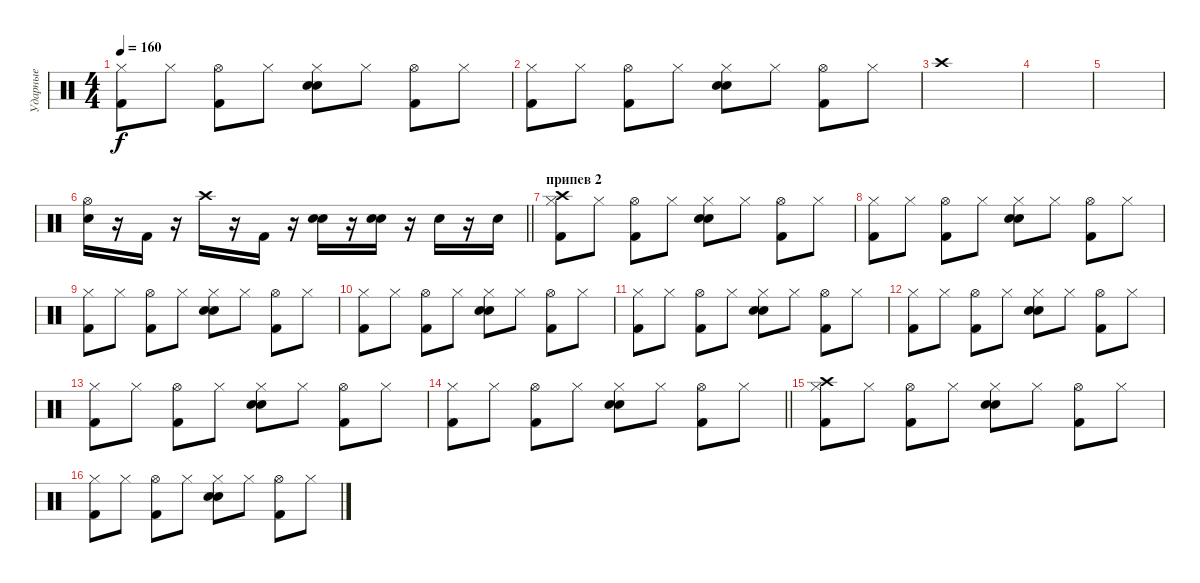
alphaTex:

\track ("Ударные" "Ударные") {instrument percussion}
\staff {score}
\articulation defaults
\ts (4 4)
\tempo 160
\clef neutral
\ks c
("Hi-Hat (closed)" "Kick (hit) 2").8{dy f} "Hi-Hat (closed)".8 ("Hi-Hat (open)" "Kick (hit) 2").8 "Hi-Hat (closed)".8 ("Hi-Hat (closed)" "Snare (hit) 2" "Electric Snare (hit)").8 "Hi-Hat (closed)".8 ("Hi-Hat (open)" "Kick (hit) 2").8 "Hi-Hat (closed)".8 |
("Hi-Hat (closed)" "Kick (hit) 2").8 "Hi-Hat (closed)".8 ("Hi-Hat (open)" "Kick (hit) 2").8 "Hi-Hat (closed)".8 ("Hi-Hat (closed)" "Snare (hit) 2" "Electric Snare (hit)").8 "Hi-Hat (closed)".8 ("Hi-Hat (open)" "Kick (hit) 2").8 "Hi-Hat (closed)".8 |
"Crash high (hit)".1 |
|
|
\barLineRight lightlight
("Snare (hit) 2" "Hi-Hat (open)").16 r.16 "Kick (hit) 2".16 r.16 "Crash high (hit)".16 r.16 "Kick (hit) 2".16 r.16 ("Snare (hit) 2" "Electric Snare (hit)").16 r.16 ("Snare (hit) 2" "Electric Snare (hit)").16 r.16 "Electric Snare (hit)".16 r.16 "Electric Snare (hit)".16 |
\section ("" "припев 2")
("Hi-Hat (closed)" "Crash high (hit)" "Kick (hit) 2").8 "Hi-Hat (closed)".8 ("Hi-Hat (open)" "Kick (hit) 2").8 "Hi-Hat (closed)".8 ("Hi-Hat (closed)" "Electric Snare (hit)" "Snare (hit) 2").8 "Hi-Hat (closed)".8 ("Hi-Hat (open)" "Kick (hit) 2").8 "Hi-Hat (closed)".8 |
("Hi-Hat (closed)" "Kick (hit) 2").8 "Hi-Hat (closed)".8 ("Hi-Hat (open)" "Kick (hit) 2").8 "Hi-Hat (closed)".8 ("Hi-Hat (closed)" "Snare (hit) 2" "Electric Snare (hit)").8 "Hi-Hat (closed)".8 ("Hi-Hat (open)" "Kick (hit) 2").8 "Hi-Hat (closed)".8 |
("Hi-Hat (closed)" "Kick (hit) 2").8 "Hi-Hat (closed)".8 ("Hi-Hat (open)" "Kick (hit) 2").8 "Hi-Hat (closed)".8 ("Hi-Hat (closed)" "Electric Snare (hit)" "Snare (hit) 2").8 "Hi-Hat (closed)".8 ("Hi-Hat (open)" "Kick (hit) 2").8 "Hi-Hat (closed)".8 |
("Hi-Hat (closed)" "Kick (hit) 2").8 "Hi-Hat (closed)".8 ("Hi-Hat (open)" "Kick (hit) 2").8 "Hi-Hat (closed)".8 ("Hi-Hat (closed)" "Electric Snare (hit)" "Snare (hit) 2").8 "Hi-Hat (closed)".8 ("Hi-Hat (open)" "Kick (hit) 2").8 "Hi-Hat (closed)".8 |
("Hi-Hat (closed)" "Kick (hit) 2").8 "Hi-Hat (closed)".8 ("Hi-Hat (open)" "Kick (hit) 2").8 "Hi-Hat (closed)".8 ("Hi-Hat (closed)" "Snare (hit) 2" "Electric Snare (hit)").8 "Hi-Hat (closed)".8 ("Hi-Hat (open)" "Kick (hit) 2").8 "Hi-Hat (closed)".8 |
("Hi-Hat (closed)" "Kick (hit) 2").8 "Hi-Hat (closed)".8 ("Hi-Hat (open)" "Kick (hit) 2").8 "Hi-Hat (closed)".8 ("Hi-Hat (closed)" "Snare (hit) 2" "Electric Snare (hit)").8 "Hi-Hat (closed)".8 ("Hi-Hat (open)" "Kick (hit) 2").8 "Hi-Hat (closed)".8 |
("Hi-Hat (closed)" "Kick (hit) 2").8 "Hi-Hat (closed)".8 ("Hi-Hat (open)" "Kick (hit) 2").8 "Hi-Hat (closed)".8 ("Hi-Hat (closed)" "Snare (hit) 2" "Electric Snare (hit)").8 "Hi-Hat (closed)".8 ("Hi-Hat (open)" "Kick (hit) 2").8 "Hi-Hat (closed)".8 |
\barLineRight lightlight
("Hi-Hat (closed)" "Kick (hit) 2").8 "Hi-Hat (closed)".8 ("Hi-Hat (open)" "Kick (hit) 2").8 "Hi-Hat (closed)".8 ("Hi-Hat (closed)" "Snare (hit) 2" "Electric Snare (hit)").8 "Hi-Hat (closed)".8 ("Hi-Hat (open)" "Kick (hit) 2").8 "Hi-Hat (closed)".8 |
("Hi-Hat (closed)" "Crash high (hit)" "Kick (hit) 2").8 "Hi-Hat (closed)".8 ("Hi-Hat (open)" "Kick (hit) 2").8 "Hi-Hat (closed)".8 ("Hi-Hat (closed)" "Snare (hit) 2" "Electric Snare (hit)").8 "Hi-Hat (closed)".8 ("Hi-Hat (open)" "Kick (hit) 2").8 "Hi-Hat (closed)".8 |
("Hi-Hat (closed)" "Kick (hit) 2").8 "Hi-Hat (closed)".8 ("Hi-Hat (open)" "Kick (hit) 2").8 "Hi-Hat (closed)".8 ("Hi-Hat (closed)" "Snare (hit) 2" "Electric Snare (hit)").8 "Hi-Hat (closed)".8 ("Hi-Hat (open)" "Kick (hit) 2").8 "Hi-Hat (closed)".8
